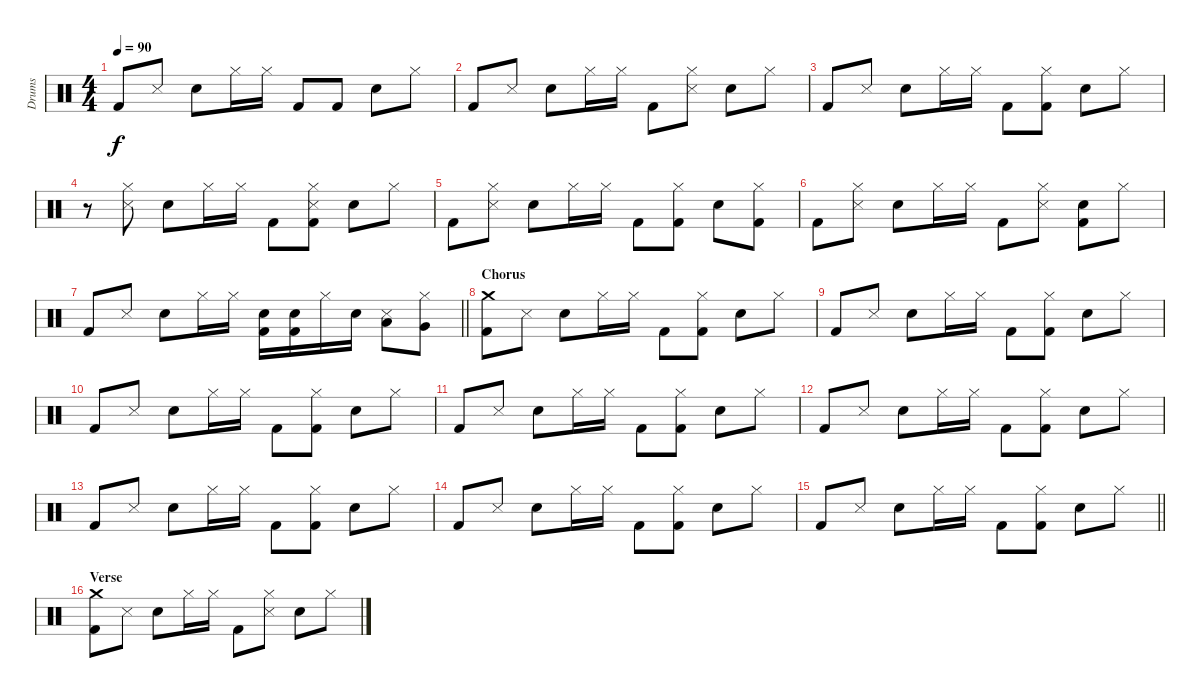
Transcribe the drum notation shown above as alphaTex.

\track ("Drums" "Drums") {instrument percussion}
\staff {score}
\articulation defaults
\ts (4 4)
\tempo 90
\clef neutral
\ks c "Kick (hit) 2".8{dy f} "Snare (side stick) 3".8 "Snare (hit) 2".8 "Hi-Hat (closed)".16 "Hi-Hat (closed)".16 "Kick (hit) 2".8 "Kick (hit) 2".8 "Snare (hit) 2".8 "Hi-Hat (closed)".8
|
"Kick (hit) 2".8 "Snare (side stick) 3".8 "Snare (hit) 2".8 "Hi-Hat (closed)".16 "Hi-Hat (closed)".16 "Kick (hit) 2".8 ("Hi-Hat (closed)" "Snare (side stick) 3").8 "Snare (hit) 2".8 "Hi-Hat (closed)".8 |
"Kick (hit) 2".8 "Snare (side stick) 3".8 "Snare (hit) 2".8 "Hi-Hat (closed)".16 "Hi-Hat (closed)".16 "Kick (hit) 2".8 ("Hi-Hat (closed)" "Kick (hit) 2").8 "Snare (hit) 2".8 "Hi-Hat (closed)".8 |
r.8 ("Hi-Hat (closed)" "Snare (side stick) 3").8 "Snare (hit) 2".8 "Hi-Hat (closed)".16 "Hi-Hat (closed)".16 "Kick (hit) 2".8 ("Hi-Hat (closed)" "Snare (side stick) 3" "Kick (hit) 2").8 "Snare (hit) 2".8 "Hi-Hat (closed)".8 |
"Kick (hit) 2".8 ("Hi-Hat (closed)" "Snare (side stick) 3").8 "Snare (hit) 2".8 "Hi-Hat (closed)".16 "Hi-Hat (closed)".16 "Kick (hit) 2".8 ("Hi-Hat (closed)" "Kick (hit) 2").8 "Snare (hit) 2".8 ("Hi-Hat (closed)" "Kick (hit) 2").8 |
"Kick (hit) 2".8 ("Hi-Hat (closed)" "Snare (side stick) 3").8 "Snare (hit) 2".8 "Hi-Hat (closed)".16 "Hi-Hat (closed)".16 "Kick (hit) 2".8 ("Hi-Hat (closed)" "Snare (side stick) 3").8 ("Snare (hit) 2" "Kick (hit) 2").8 "Hi-Hat (closed)".8 |
\barLineRight lightlight "Kick (hit) 2".8 "Snare (side stick) 3".8 "Snare (hit) 2".8 "Hi-Hat (closed)".16 "Hi-Hat (closed)".16
("Snare (hit) 2" "Kick (hit) 2").16 ("Snare (hit) 2" "Kick (hit) 2").16 "Hi-Hat (closed)".16 "Snare (hit) 2".16 ("Snare (side stick) 3" "Low Tom (hit)").8 ("Hi-Hat (closed)" "Very Low Tom (hit)").8 |
\section ("" "Chorus")
("Crash medium (hit)" "Kick (hit) 2").8 "Snare (side stick) 3".8 "Snare (hit) 2".8 "Hi-Hat (closed)".16 "Hi-Hat (closed)".16 "Kick (hit) 2".8 ("Hi-Hat (closed)" "Kick (hit) 2").8 "Snare (hit) 2".8 "Hi-Hat (closed)".8 |
"Kick (hit) 2".8 "Snare (side stick) 3".8 "Snare (hit) 2".8 "Hi-Hat (closed)".16 "Hi-Hat (closed)".16 "Kick (hit) 2".8 ("Hi-Hat (closed)" "Kick (hit) 2").8 "Snare (hit) 2".8 "Hi-Hat (closed)".8 |
"Kick (hit) 2".8 "Snare (side stick) 3".8 "Snare (hit) 2".8 "Hi-Hat (closed)".16 "Hi-Hat (closed)".16 "Kick (hit) 2".8 ("Hi-Hat (closed)" "Kick (hit) 2").8 "Snare (hit) 2".8 "Hi-Hat (closed)".8 |
"Kick (hit) 2".8 "Snare (side stick) 3".8 "Snare (hit) 2".8 "Hi-Hat (closed)".16 "Hi-Hat (closed)".16 "Kick (hit) 2".8 ("Hi-Hat (closed)" "Kick (hit) 2").8 "Snare (hit) 2".8 "Hi-Hat (closed)".8 |
"Kick (hit) 2".8 "Snare (side stick) 3".8 "Snare (hit) 2".8 "Hi-Hat (closed)".16 "Hi-Hat (closed)".16 "Kick (hit) 2".8 ("Hi-Hat (closed)" "Kick (hit) 2").8 "Snare (hit) 2".8 "Hi-Hat (closed)".8 |
"Kick (hit) 2".8 "Snare (side stick) 3".8 "Snare (hit) 2".8 "Hi-Hat (closed)".16 "Hi-Hat (closed)".16 "Kick (hit) 2".8 ("Hi-Hat (closed)" "Kick (hit) 2").8 "Snare (hit) 2".8 "Hi-Hat (closed)".8 |
"Kick (hit) 2".8 "Snare (side stick) 3".8 "Snare (hit) 2".8 "Hi-Hat (closed)".16 "Hi-Hat (closed)".16 "Kick (hit) 2".8 ("Hi-Hat (closed)" "Kick (hit) 2").8 "Snare (hit) 2".8 "Hi-Hat (closed)".8 |
\barLineRight lightlight "Kick (hit) 2".8 "Snare (side stick) 3".8 "Snare (hit) 2".8 "Hi-Hat (closed)".16 "Hi-Hat (closed)".16 "Kick (hit) 2".8
("Hi-Hat (closed)" "Kick (hit) 2").8 "Snare (hit) 2".8 "Hi-Hat (closed)".8 |
\section ("" "Verse")
("Crash medium (hit)" "Kick (hit) 2").8 "Snare (side stick) 3".8 "Snare (hit) 2".8 "Hi-Hat (closed)".16 "Hi-Hat (closed)".16 "Kick (hit) 2".8 ("Hi-Hat (closed)" "Snare (side stick) 3").8 "Snare (hit) 2".8 "Hi-Hat (closed)".8
